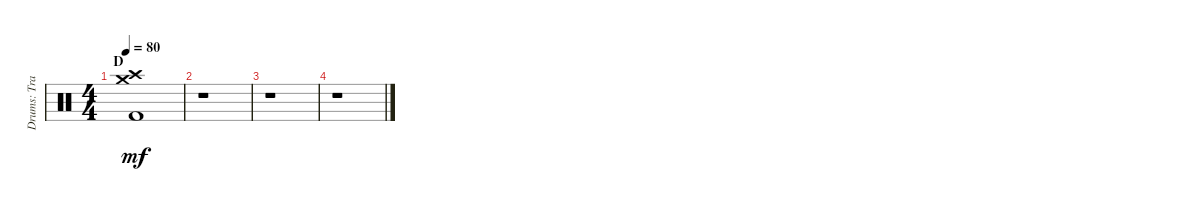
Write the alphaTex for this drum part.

\track ("Drums: Travis Clarke" "Drums: Tra") {instrument percussion}
\staff {score}
\articulation defaults
\ts (4 4)
\section ("" "D")
\tempo 80
\clef neutral
\ks c
("Kick (hit) 2" "Crash high (hit)" "Crash medium (hit)").1{dy mf} |
r.1{volume 0} |
r.1 |
r.1
